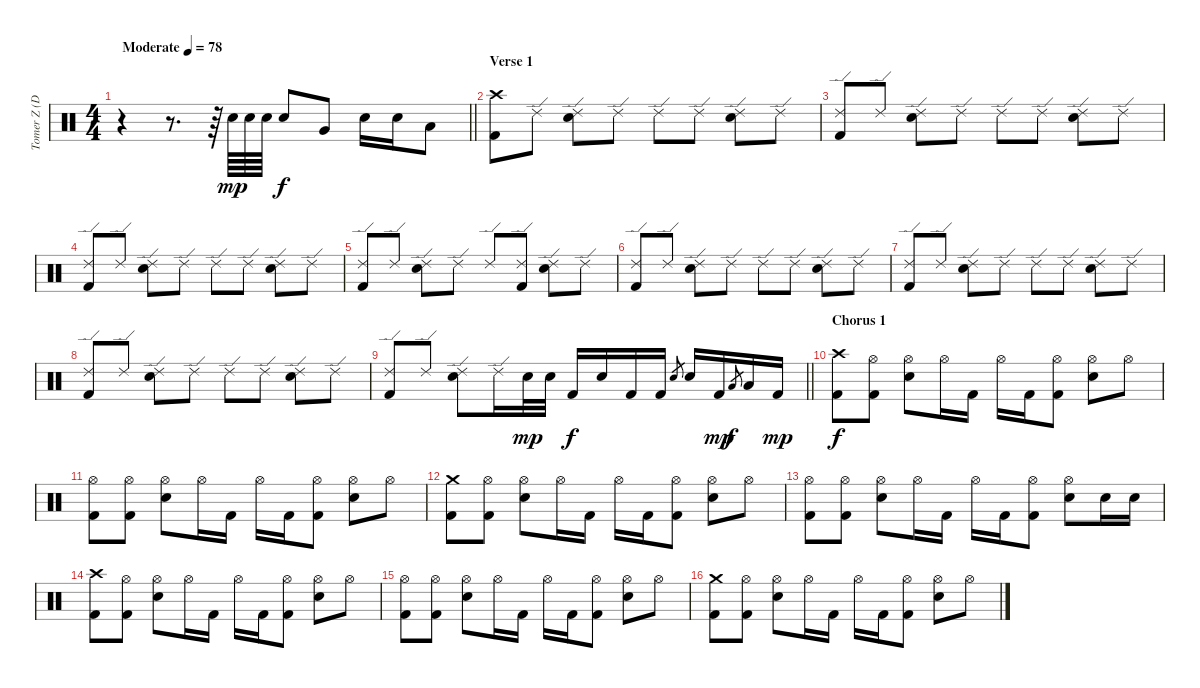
\track ("Tomer Z (Drums)" "Tomer Z (D") {instrument percussion}
\staff {score}
\articulation defaults
\ts (4 4)
\tempo (78 "Moderate")
\clef neutral
\barLineRight lightlight
\ks c
r.4{dy mp} r.8{d} r.64 "Snare (hit) 2".64 "Snare (hit) 2".64 "Snare (hit) 2".64 "Snare (hit) 2".8{dy f} "Very Low Tom (hit)".8 "Snare (hit) 2".16 "Snare (hit) 2".16 "Low Floor Tom (hit)".8 |
\section ("" "Verse 1")
("Crash high (hit)" "Kick (hit) 2").8 "Ride (edge) 2".8 ("Ride (edge) 2" "Snare (hit) 2").8 "Ride (edge) 2".8 "Ride (edge) 2".8 "Ride (edge) 2".8 ("Ride (edge) 2" "Snare (hit) 2").8 "Ride (edge) 2".8 |
("Ride (edge) 2" "Kick (hit) 2").8 "Ride (edge) 2".8 ("Ride (edge) 2" "Snare (hit) 2").8 "Ride (edge) 2".8 "Ride (edge) 2".8 "Ride (edge) 2".8 ("Ride (edge) 2" "Snare (hit) 2").8 "Ride (edge) 2".8 |
("Ride (edge) 2" "Kick (hit) 2").8 "Ride (edge) 2".8 ("Ride (edge) 2" "Snare (hit) 2").8 "Ride (edge) 2".8 "Ride (edge) 2".8 "Ride (edge) 2".8 ("Ride (edge) 2" "Snare (hit) 2").8 "Ride (edge) 2".8 |
("Ride (edge) 2" "Kick (hit) 2").8 "Ride (edge) 2".8 ("Ride (edge) 2" "Snare (hit) 2").8 "Ride (edge) 2".8 "Ride (edge) 2".8 ("Ride (edge) 2" "Kick (hit) 2").8 ("Ride (edge) 2" "Snare (hit) 2").8 "Ride (edge) 2".8 |
("Ride (edge) 2" "Kick (hit) 2").8 "Ride (edge) 2".8 ("Ride (edge) 2" "Snare (hit) 2").8 "Ride (edge) 2".8 "Ride (edge) 2".8 "Ride (edge) 2".8 ("Ride (edge) 2" "Snare (hit) 2").8 "Ride (edge) 2".8 |
("Ride (edge) 2" "Kick (hit) 2").8 "Ride (edge) 2".8 ("Ride (edge) 2" "Snare (hit) 2").8 "Ride (edge) 2".8 "Ride (edge) 2".8 "Ride (edge) 2".8 ("Ride (edge) 2" "Snare (hit) 2").8 "Ride (edge) 2".8 |
("Ride (edge) 2" "Kick (hit) 2").8 "Ride (edge) 2".8 ("Ride (edge) 2" "Snare (hit) 2").8 "Ride (edge) 2".8 "Ride (edge) 2".8 "Ride (edge) 2".8 ("Ride (edge) 2" "Snare (hit) 2").8 "Ride (edge) 2".8 |
\barLineRight lightlight
("Ride (edge) 2" "Kick (hit) 2").8 "Ride (edge) 2".8 ("Ride (edge) 2" "Snare (hit) 2").8 "Ride (edge) 2".16 "Snare (hit) 2".32{dy mp} "Snare (hit) 2".32 "Kick (hit) 2".16{dy f} "Snare (hit) 2".16 "Kick (hit) 2".16 "Kick (hit) 2".16 "Snare (hit) 2".8{gr} "Snare (hit) 2".16 "Kick (hit) 2".16{dy mp} "Low Floor Tom (hit)".8{gr dy f} "Low Floor Tom (hit)".16 "Kick (hit) 2".16{dy mp} |
\section ("" "Chorus 1")
("Crash high (hit)" "Kick (hit) 2").8{dy f} ("Hi-Hat (open)" "Kick (hit) 2").8 ("Hi-Hat (open)" "Snare (hit) 2").8 "Hi-Hat (open)".16 "Kick (hit) 2".16 "Hi-Hat (open)".16 "Kick (hit) 2".16 ("Hi-Hat (open)" "Kick (hit) 2").8 ("Hi-Hat (open)" "Snare (hit) 2").8 "Hi-Hat (open)".8 |
("Hi-Hat (open)" "Kick (hit) 2").8 ("Hi-Hat (open)" "Kick (hit) 2").8 ("Hi-Hat (open)" "Snare (hit) 2").8 "Hi-Hat (open)".16 "Kick (hit) 2".16 "Hi-Hat (open)".16 "Kick (hit) 2".16 ("Hi-Hat (open)" "Kick (hit) 2").8 ("Hi-Hat (open)" "Snare (hit) 2").8 "Hi-Hat (open)".8 |
("Crash medium (hit)" "Kick (hit) 2").8 ("Hi-Hat (open)" "Kick (hit) 2").8 ("Hi-Hat (open)" "Snare (hit) 2").8 "Hi-Hat (open)".16 "Kick (hit) 2".16 "Hi-Hat (open)".16 "Kick (hit) 2".16 ("Hi-Hat (open)" "Kick (hit) 2").8 ("Hi-Hat (open)" "Snare (hit) 2").8 "Hi-Hat (open)".8 |
("Hi-Hat (open)" "Kick (hit) 2").8 ("Hi-Hat (open)" "Kick (hit) 2").8 ("Hi-Hat (open)" "Snare (hit) 2").8 "Hi-Hat (open)".16 "Kick (hit) 2".16 "Hi-Hat (open)".16 "Kick (hit) 2".16 ("Hi-Hat (open)" "Kick (hit) 2").8 ("Hi-Hat (open)" "Snare (hit) 2").8 "Snare (hit) 2".16 "Snare (hit) 2".16 |
("Crash high (hit)" "Kick (hit) 2").8 ("Hi-Hat (open)" "Kick (hit) 2").8 ("Hi-Hat (open)" "Snare (hit) 2").8 "Hi-Hat (open)".16 "Kick (hit) 2".16 "Hi-Hat (open)".16 "Kick (hit) 2".16 ("Hi-Hat (open)" "Kick (hit) 2").8 ("Hi-Hat (open)" "Snare (hit) 2").8 "Hi-Hat (open)".8 |
("Hi-Hat (open)" "Kick (hit) 2").8 ("Hi-Hat (open)" "Kick (hit) 2").8 ("Hi-Hat (open)" "Snare (hit) 2").8 "Hi-Hat (open)".16 "Kick (hit) 2".16 "Hi-Hat (open)".16 "Kick (hit) 2".16 ("Hi-Hat (open)" "Kick (hit) 2").8 ("Hi-Hat (open)" "Snare (hit) 2").8 "Hi-Hat (open)".8 |
("Crash medium (hit)" "Kick (hit) 2").8 ("Hi-Hat (open)" "Kick (hit) 2").8 ("Hi-Hat (open)" "Snare (hit) 2").8 "Hi-Hat (open)".16 "Kick (hit) 2".16 "Hi-Hat (open)".16 "Kick (hit) 2".16 ("Hi-Hat (open)" "Kick (hit) 2").8 ("Hi-Hat (open)" "Snare (hit) 2").8 "Hi-Hat (open)".8
